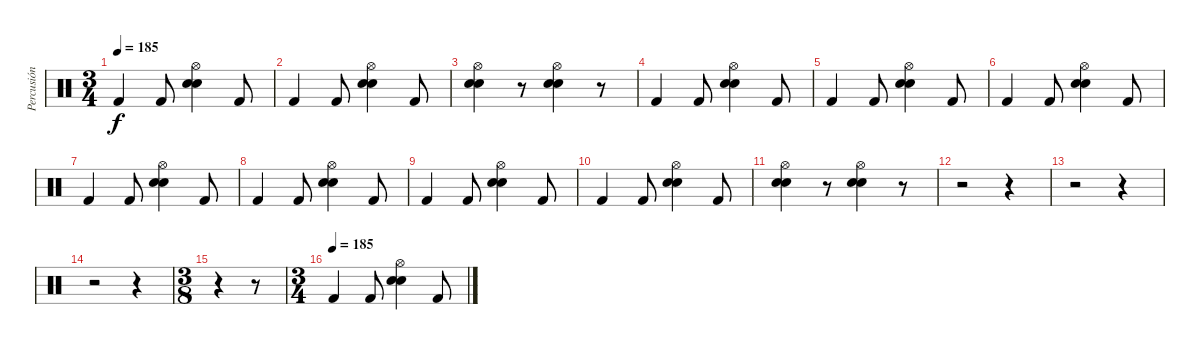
\track ("Percusión" "Percusión") {instrument percussion}
\staff {score}
\articulation defaults
\ts (3 4)
\tempo 185
\clef neutral
\ks c "Kick (hit) 2".4{dy f} "Kick (hit) 2".8
("Hi-Hat (open)" "Electric Snare (hit)" "Snare (hit) 2").4 "Kick (hit) 2".8 |
"Kick (hit) 2".4 "Kick (hit) 2".8 ("Hi-Hat (open)" "Electric Snare (hit)" "Snare (hit) 2").4 "Kick (hit) 2".8 |
("Hi-Hat (open)" "Electric Snare (hit)" "Snare (hit) 2").4 r.8 ("Hi-Hat (open)" "Electric Snare (hit)" "Snare (hit) 2").4 r.8 |
"Kick (hit) 2".4 "Kick (hit) 2".8 ("Hi-Hat (open)" "Electric Snare (hit)" "Snare (hit) 2").4 "Kick (hit) 2".8 |
"Kick (hit) 2".4 "Kick (hit) 2".8 ("Hi-Hat (open)" "Electric Snare (hit)" "Snare (hit) 2").4 "Kick (hit) 2".8 |
"Kick (hit) 2".4 "Kick (hit) 2".8 ("Hi-Hat (open)" "Electric Snare (hit)" "Snare (hit) 2").4 "Kick (hit) 2".8 |
"Kick (hit) 2".4 "Kick (hit) 2".8 ("Hi-Hat (open)" "Electric Snare (hit)" "Snare (hit) 2").4 "Kick (hit) 2".8 |
"Kick (hit) 2".4 "Kick (hit) 2".8 ("Hi-Hat (open)" "Electric Snare (hit)" "Snare (hit) 2").4 "Kick (hit) 2".8 |
"Kick (hit) 2".4 "Kick (hit) 2".8 ("Hi-Hat (open)" "Electric Snare (hit)" "Snare (hit) 2").4 "Kick (hit) 2".8 |
"Kick (hit) 2".4 "Kick (hit) 2".8 ("Hi-Hat (open)" "Electric Snare (hit)" "Snare (hit) 2").4 "Kick (hit) 2".8 |
("Hi-Hat (open)" "Electric Snare (hit)" "Snare (hit) 2").4 r.8 ("Hi-Hat (open)" "Electric Snare (hit)" "Snare (hit) 2").4 r.8 |
r.2 r.4 |
r.2 r.4 |
r.2 r.4 |
\ts (3 8)
r.4 r.8 |
\ts (3 4)
\tempo (185)
"Kick (hit) 2".4 "Kick (hit) 2".8 ("Hi-Hat (open)" "Electric Snare (hit)" "Snare (hit) 2").4 "Kick (hit) 2".8
